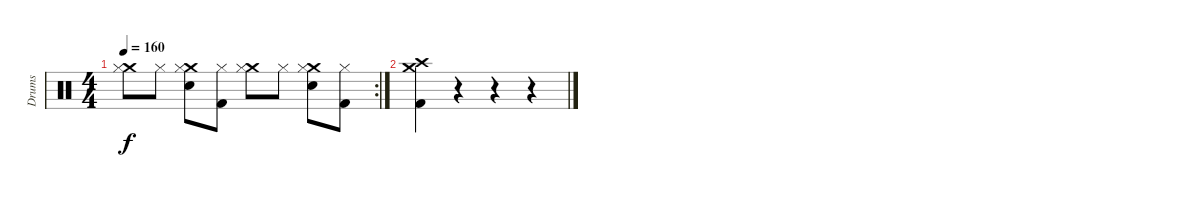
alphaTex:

\track ("Drums" "Drums") {instrument percussion}
\staff {score}
\articulation defaults
\rc 2
\ts (4 4)
\tempo 160
\clef neutral
\ks c
("Crash medium (hit)" "Hi-Hat (closed)").8{dy f} "Hi-Hat (closed)".8 ("Crash medium (hit)" "Hi-Hat (closed)" "Snare (hit) 2").8 ("Hi-Hat (closed)" "Kick (hit) 2").8 ("Crash medium (hit)" "Hi-Hat (closed)").8 "Hi-Hat (closed)".8 ("Crash medium (hit)" "Hi-Hat (closed)" "Snare (hit) 2").8 ("Hi-Hat (closed)" "Kick (hit) 2").8 |
("Crash medium (hit)" "Crash high (hit)" "Kick (hit) 2").4 r.4 r.4 r.4
